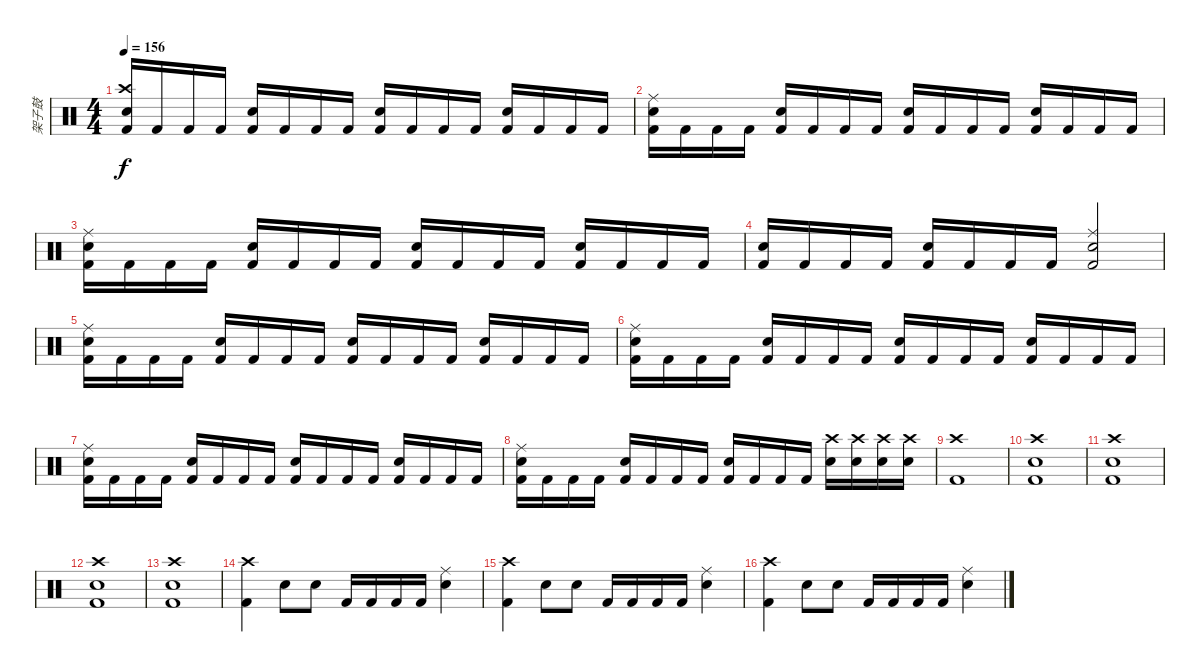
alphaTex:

\track ("架子鼓" "架子鼓") {instrument percussion}
\staff {score}
\articulation defaults
\ts (4 4)
\tempo 156
\clef neutral
\ks c
("Kick (hit) 2" "Crash high (hit)" "Electric Snare (hit)").16{dy f} "Kick (hit) 2".16 "Kick (hit) 2".16 "Kick (hit) 2".16 ("Kick (hit) 2" "Electric Snare (hit)").16 "Kick (hit) 2".16 "Kick (hit) 2".16 "Kick (hit) 2".16 ("Kick (hit) 2" "Electric Snare (hit)").16 "Kick (hit) 2".16 "Kick (hit) 2".16 "Kick (hit) 2".16 ("Kick (hit) 2" "Electric Snare (hit)").16 "Kick (hit) 2".16 "Kick (hit) 2".16 "Kick (hit) 2".16 |
("Kick (hit) 2" "Electric Snare (hit)" "Ride (middle)").16 "Kick (hit) 2".16 "Kick (hit) 2".16 "Kick (hit) 2".16 ("Kick (hit) 2" "Electric Snare (hit)").16 "Kick (hit) 2".16 "Kick (hit) 2".16 "Kick (hit) 2".16 ("Kick (hit) 2" "Electric Snare (hit)").16 "Kick (hit) 2".16 "Kick (hit) 2".16 "Kick (hit) 2".16 ("Kick (hit) 2" "Electric Snare (hit)").16 "Kick (hit) 2".16 "Kick (hit) 2".16 "Kick (hit) 2".16 |
("Kick (hit) 2" "Electric Snare (hit)" "Ride (middle)").16 "Kick (hit) 2".16 "Kick (hit) 2".16 "Kick (hit) 2".16 ("Kick (hit) 2" "Electric Snare (hit)").16 "Kick (hit) 2".16 "Kick (hit) 2".16 "Kick (hit) 2".16 ("Kick (hit) 2" "Electric Snare (hit)").16 "Kick (hit) 2".16 "Kick (hit) 2".16 "Kick (hit) 2".16 ("Kick (hit) 2" "Electric Snare (hit)").16 "Kick (hit) 2".16 "Kick (hit) 2".16 "Kick (hit) 2".16 |
("Kick (hit) 2" "Electric Snare (hit)").16 "Kick (hit) 2".16 "Kick (hit) 2".16 "Kick (hit) 2".16 ("Kick (hit) 2" "Electric Snare (hit)").16 "Kick (hit) 2".16 "Kick (hit) 2".16 "Kick (hit) 2".16 ("Kick (hit) 2" "Snare (hit) 2" "Ride (middle)").2 |
("Kick (hit) 2" "Electric Snare (hit)" "Ride (middle)").16 "Kick (hit) 2".16 "Kick (hit) 2".16 "Kick (hit) 2".16 ("Kick (hit) 2" "Electric Snare (hit)").16 "Kick (hit) 2".16 "Kick (hit) 2".16 "Kick (hit) 2".16 ("Kick (hit) 2" "Electric Snare (hit)").16 "Kick (hit) 2".16 "Kick (hit) 2".16 "Kick (hit) 2".16 ("Kick (hit) 2" "Electric Snare (hit)").16 "Kick (hit) 2".16 "Kick (hit) 2".16 "Kick (hit) 2".16 |
("Kick (hit) 2" "Electric Snare (hit)" "Ride (middle)").16 "Kick (hit) 2".16 "Kick (hit) 2".16 "Kick (hit) 2".16 ("Kick (hit) 2" "Electric Snare (hit)").16 "Kick (hit) 2".16 "Kick (hit) 2".16 "Kick (hit) 2".16 ("Kick (hit) 2" "Electric Snare (hit)").16 "Kick (hit) 2".16 "Kick (hit) 2".16 "Kick (hit) 2".16 ("Kick (hit) 2" "Electric Snare (hit)").16 "Kick (hit) 2".16 "Kick (hit) 2".16 "Kick (hit) 2".16 |
("Kick (hit) 2" "Electric Snare (hit)" "Ride (middle)").16 "Kick (hit) 2".16 "Kick (hit) 2".16 "Kick (hit) 2".16 ("Kick (hit) 2" "Electric Snare (hit)").16 "Kick (hit) 2".16 "Kick (hit) 2".16 "Kick (hit) 2".16 ("Kick (hit) 2" "Electric Snare (hit)").16 "Kick (hit) 2".16 "Kick (hit) 2".16 "Kick (hit) 2".16 ("Kick (hit) 2" "Electric Snare (hit)").16 "Kick (hit) 2".16 "Kick (hit) 2".16 "Kick (hit) 2".16 |
("Kick (hit) 2" "Electric Snare (hit)" "Ride (middle)").16 "Kick (hit) 2".16 "Kick (hit) 2".16 "Kick (hit) 2".16 ("Kick (hit) 2" "Electric Snare (hit)").16 "Kick (hit) 2".16 "Kick (hit) 2".16 "Kick (hit) 2".16 ("Kick (hit) 2" "Electric Snare (hit)").16 "Kick (hit) 2".16 "Kick (hit) 2".16 "Kick (hit) 2".16 ("Electric Snare (hit)" "Crash high (hit)").16 ("Electric Snare (hit)" "Crash high (hit)").16 ("Electric Snare (hit)" "Crash high (hit)").16 ("Electric Snare (hit)" "Crash high (hit)").16 |
("Kick (hit) 2" "Crash high (hit)").1 |
("Snare (hit) 2" "Kick (hit) 2" "Crash high (hit)").1 |
("Snare (hit) 2" "Kick (hit) 2" "Crash high (hit)").1 |
("Snare (hit) 2" "Kick (hit) 2" "Crash high (hit)").1 |
("Snare (hit) 2" "Kick (hit) 2" "Crash high (hit)").1 |
("Kick (hit) 2" "Crash high (hit)").4 "Snare (hit) 2".8 "Snare (hit) 2".8 "Kick (hit) 2".16 "Kick (hit) 2".16 "Kick (hit) 2".16 "Kick (hit) 2".16 ("Electric Snare (hit)" "Ride (middle)").4 |
("Kick (hit) 2" "Crash high (hit)").4 "Snare (hit) 2".8 "Snare (hit) 2".8 "Kick (hit) 2".16 "Kick (hit) 2".16 "Kick (hit) 2".16 "Kick (hit) 2".16 ("Electric Snare (hit)" "Ride (middle)").4 |
("Kick (hit) 2" "Crash high (hit)").4 "Snare (hit) 2".8 "Snare (hit) 2".8 "Kick (hit) 2".16 "Kick (hit) 2".16 "Kick (hit) 2".16 "Kick (hit) 2".16 ("Electric Snare (hit)" "Ride (middle)").4
